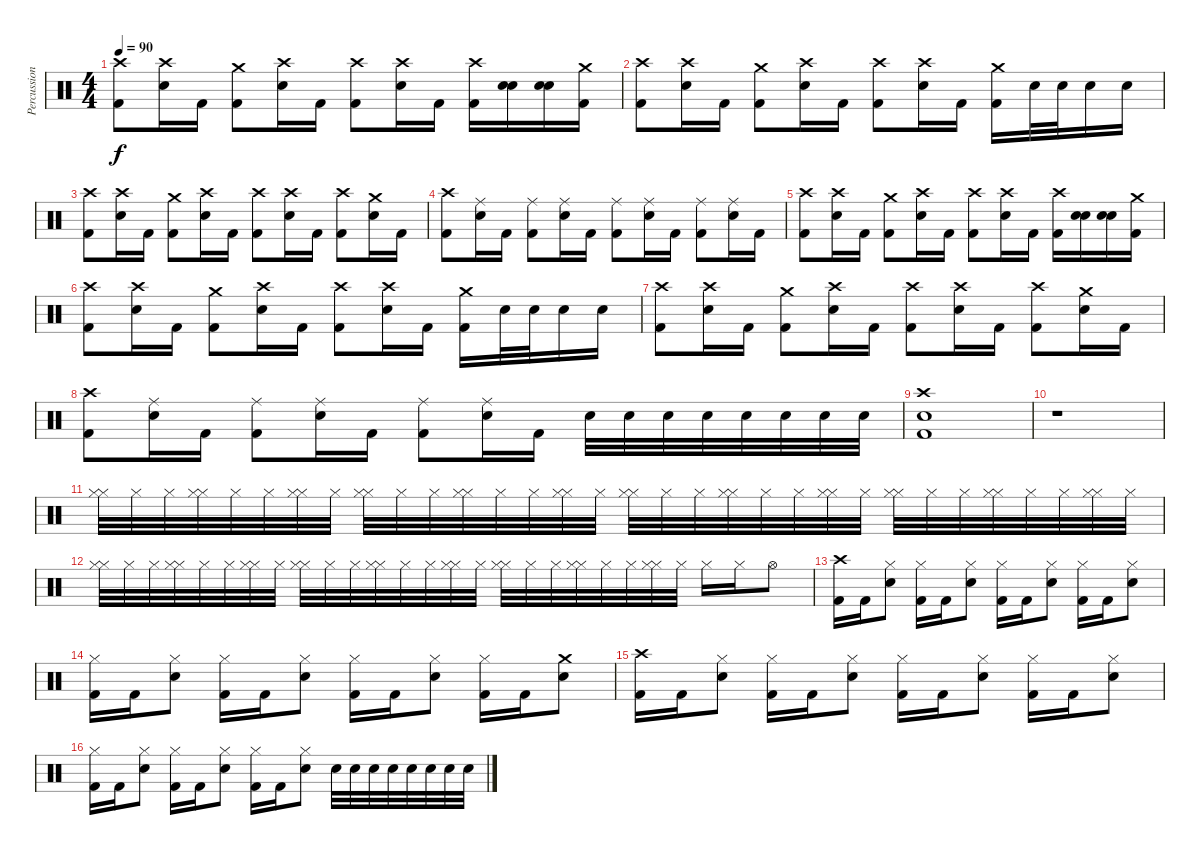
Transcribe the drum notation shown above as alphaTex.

\track ("Percussion" "Percussion") {instrument percussion}
\staff {score}
\articulation defaults
\ts (4 4)
\tempo 90
\clef neutral
\ks c
("Crash high (hit)" "Kick (hit) 2").8{dy f} ("Crash high (hit)" "Snare (hit) 2").16 "Kick (hit) 2".16 ("Crash medium (hit)" "Kick (hit) 2").8 ("Crash high (hit)" "Snare (hit) 2").16 "Kick (hit) 2".16 ("Crash high (hit)" "Kick (hit) 2").8 ("Crash high (hit)" "Snare (hit) 2").16 "Kick (hit) 2".16 ("Crash high (hit)" "Kick (hit) 2").16 ("Snare (hit) 2" "Snare (hit) 2").16 ("Snare (hit) 2" "Snare (hit) 2").16 ("Crash medium (hit)" "Kick (hit) 2").16 |
("Crash high (hit)" "Kick (hit) 2").8 ("Crash high (hit)" "Snare (hit) 2").16 "Kick (hit) 2".16 ("Crash medium (hit)" "Kick (hit) 2").8 ("Crash high (hit)" "Snare (hit) 2").16 "Kick (hit) 2".16 ("Crash high (hit)" "Kick (hit) 2").8 ("Crash high (hit)" "Snare (hit) 2").16 "Kick (hit) 2".16 ("Crash medium (hit)" "Kick (hit) 2").16 "Snare (hit) 2".32 "Snare (hit) 2".32 "Snare (hit) 2".16 "Snare (hit) 2".16 |
("Crash high (hit)" "Kick (hit) 2").8 ("Crash high (hit)" "Snare (hit) 2").16 "Kick (hit) 2".16 ("Crash medium (hit)" "Kick (hit) 2").8 ("Crash high (hit)" "Snare (hit) 2").16 "Kick (hit) 2".16 ("Crash high (hit)" "Kick (hit) 2").8 ("Crash high (hit)" "Snare (hit) 2").16 "Kick (hit) 2".16 ("Crash high (hit)" "Kick (hit) 2").8 ("Crash medium (hit)" "Snare (hit) 2").16 "Kick (hit) 2".16 |
("Crash high (hit)" "Kick (hit) 2").8 ("Ride (middle)" "Snare (hit) 2").16 "Kick (hit) 2".16 ("Ride (middle)" "Kick (hit) 2").8 ("Ride (middle)" "Snare (hit) 2").16 "Kick (hit) 2".16 ("Ride (middle)" "Kick (hit) 2").8 ("Ride (middle)" "Snare (hit) 2").16 "Kick (hit) 2".16 ("Ride (middle)" "Kick (hit) 2").8 ("Ride (middle)" "Snare (hit) 2").16 "Kick (hit) 2".16 |
("Crash high (hit)" "Kick (hit) 2").8 ("Crash high (hit)" "Snare (hit) 2").16 "Kick (hit) 2".16 ("Crash medium (hit)" "Kick (hit) 2").8 ("Crash high (hit)" "Snare (hit) 2").16 "Kick (hit) 2".16 ("Crash high (hit)" "Kick (hit) 2").8 ("Crash high (hit)" "Snare (hit) 2").16 "Kick (hit) 2".16 ("Crash high (hit)" "Kick (hit) 2").16 ("Snare (hit) 2" "Snare (hit) 2").16 ("Snare (hit) 2" "Snare (hit) 2").16 ("Crash medium (hit)" "Kick (hit) 2").16 |
("Crash high (hit)" "Kick (hit) 2").8 ("Crash high (hit)" "Snare (hit) 2").16 "Kick (hit) 2".16 ("Crash medium (hit)" "Kick (hit) 2").8 ("Crash high (hit)" "Snare (hit) 2").16 "Kick (hit) 2".16 ("Crash high (hit)" "Kick (hit) 2").8 ("Crash high (hit)" "Snare (hit) 2").16 "Kick (hit) 2".16 ("Crash medium (hit)" "Kick (hit) 2").16 "Snare (hit) 2".32 "Snare (hit) 2".32 "Snare (hit) 2".16 "Snare (hit) 2".16 |
("Crash high (hit)" "Kick (hit) 2").8 ("Crash high (hit)" "Snare (hit) 2").16 "Kick (hit) 2".16 ("Crash medium (hit)" "Kick (hit) 2").8 ("Crash high (hit)" "Snare (hit) 2").16 "Kick (hit) 2".16 ("Crash high (hit)" "Kick (hit) 2").8 ("Crash high (hit)" "Snare (hit) 2").16 "Kick (hit) 2".16 ("Crash high (hit)" "Kick (hit) 2").8 ("Crash medium (hit)" "Snare (hit) 2").16 "Kick (hit) 2".16 |
("Crash high (hit)" "Kick (hit) 2").8 ("Ride (middle)" "Snare (hit) 2").16 "Kick (hit) 2".16 ("Ride (middle)" "Kick (hit) 2").8 ("Ride (middle)" "Snare (hit) 2").16 "Kick (hit) 2".16 ("Ride (middle)" "Kick (hit) 2").8 ("Ride (middle)" "Snare (hit) 2").16 "Kick (hit) 2".16 "Snare (hit) 2".32 "Snare (hit) 2".32 "Snare (hit) 2".32 "Snare (hit) 2".32 "Snare (hit) 2".32 "Snare (hit) 2".32 "Snare (hit) 2".32 "Snare (hit) 2".32 |
("Crash high (hit)" "Snare (hit) 2" "Kick (hit) 2").1 |
r.1 |
("Hi-Hat (closed)" "Hi-Hat (closed)").32 "Hi-Hat (closed)".32 "Hi-Hat (closed)".32 ("Hi-Hat (closed)" "Hi-Hat (closed)").32 "Hi-Hat (closed)".32 "Hi-Hat (closed)".32 ("Hi-Hat (closed)" "Hi-Hat (closed)").32 "Hi-Hat (closed)".32 ("Hi-Hat (closed)" "Hi-Hat (closed)").32 "Hi-Hat (closed)".32 "Hi-Hat (closed)".32 ("Hi-Hat (closed)" "Hi-Hat (closed)").32 "Hi-Hat (closed)".32 "Hi-Hat (closed)".32 ("Hi-Hat (closed)" "Hi-Hat (closed)").32 "Hi-Hat (closed)".32 ("Hi-Hat (closed)" "Hi-Hat (closed)").32 "Hi-Hat (closed)".32 "Hi-Hat (closed)".32 ("Hi-Hat (closed)" "Hi-Hat (closed)").32 "Hi-Hat (closed)".32 "Hi-Hat (closed)".32 ("Hi-Hat (closed)" "Hi-Hat (closed)").32 "Hi-Hat (closed)".32 ("Hi-Hat (closed)" "Hi-Hat (closed)").32 "Hi-Hat (closed)".32 "Hi-Hat (closed)".32 ("Hi-Hat (closed)" "Hi-Hat (closed)").32 "Hi-Hat (closed)".32 "Hi-Hat (closed)".32 ("Hi-Hat (closed)" "Hi-Hat (closed)").32 "Hi-Hat (closed)".32 |
("Hi-Hat (closed)" "Hi-Hat (closed)").32 "Hi-Hat (closed)".32 "Hi-Hat (closed)".32 ("Hi-Hat (closed)" "Hi-Hat (closed)").32 "Hi-Hat (closed)".32 "Hi-Hat (closed)".32 ("Hi-Hat (closed)" "Hi-Hat (closed)").32 "Hi-Hat (closed)".32 ("Hi-Hat (closed)" "Hi-Hat (closed)").32 "Hi-Hat (closed)".32 "Hi-Hat (closed)".32 ("Hi-Hat (closed)" "Hi-Hat (closed)").32 "Hi-Hat (closed)".32 "Hi-Hat (closed)".32 ("Hi-Hat (closed)" "Hi-Hat (closed)").32 "Hi-Hat (closed)".32 ("Hi-Hat (closed)" "Hi-Hat (closed)").32 "Hi-Hat (closed)".32 "Hi-Hat (closed)".32 ("Hi-Hat (closed)" "Hi-Hat (closed)").32 "Hi-Hat (closed)".32 "Hi-Hat (closed)".32 ("Hi-Hat (closed)" "Hi-Hat (closed)").32 "Hi-Hat (closed)".32 "Hi-Hat (closed)".16 "Hi-Hat (closed)".16 "Hi-Hat (open)".8 |
("Crash high (hit)" "Kick (hit) 2").16 "Kick (hit) 2".16 ("Hi-Hat (closed)" "Snare (hit) 2").8 ("Hi-Hat (closed)" "Kick (hit) 2").16 "Kick (hit) 2".16 ("Hi-Hat (closed)" "Snare (hit) 2").8 ("Hi-Hat (closed)" "Kick (hit) 2").16 "Kick (hit) 2".16 ("Hi-Hat (closed)" "Snare (hit) 2").8 ("Hi-Hat (closed)" "Kick (hit) 2").16 "Kick (hit) 2".16 ("Hi-Hat (closed)" "Snare (hit) 2").8 |
("Hi-Hat (closed)" "Kick (hit) 2").16 "Kick (hit) 2".16 ("Hi-Hat (closed)" "Snare (hit) 2").8 ("Hi-Hat (closed)" "Kick (hit) 2").16 "Kick (hit) 2".16 ("Hi-Hat (closed)" "Snare (hit) 2").8 ("Hi-Hat (closed)" "Kick (hit) 2").16 "Kick (hit) 2".16 ("Hi-Hat (closed)" "Snare (hit) 2").8 ("Hi-Hat (closed)" "Kick (hit) 2").16 "Kick (hit) 2".16 ("Crash medium (hit)" "Snare (hit) 2").8 |
("Crash high (hit)" "Kick (hit) 2").16 "Kick (hit) 2".16 ("Hi-Hat (closed)" "Snare (hit) 2").8 ("Hi-Hat (closed)" "Kick (hit) 2").16 "Kick (hit) 2".16 ("Hi-Hat (closed)" "Snare (hit) 2").8 ("Hi-Hat (closed)" "Kick (hit) 2").16 "Kick (hit) 2".16 ("Hi-Hat (closed)" "Snare (hit) 2").8 ("Hi-Hat (closed)" "Kick (hit) 2").16 "Kick (hit) 2".16 ("Hi-Hat (closed)" "Snare (hit) 2").8 |
("Hi-Hat (closed)" "Kick (hit) 2").16 "Kick (hit) 2".16 ("Hi-Hat (closed)" "Snare (hit) 2").8 ("Hi-Hat (closed)" "Kick (hit) 2").16 "Kick (hit) 2".16 ("Hi-Hat (closed)" "Snare (hit) 2").8 ("Hi-Hat (closed)" "Kick (hit) 2").16 "Kick (hit) 2".16 ("Hi-Hat (closed)" "Snare (hit) 2").8 "Snare (hit) 2".32 "Snare (hit) 2".32 "Snare (hit) 2".32 "Snare (hit) 2".32 "Snare (hit) 2".32 "Snare (hit) 2".32 "Snare (hit) 2".32 "Snare (hit) 2".32
